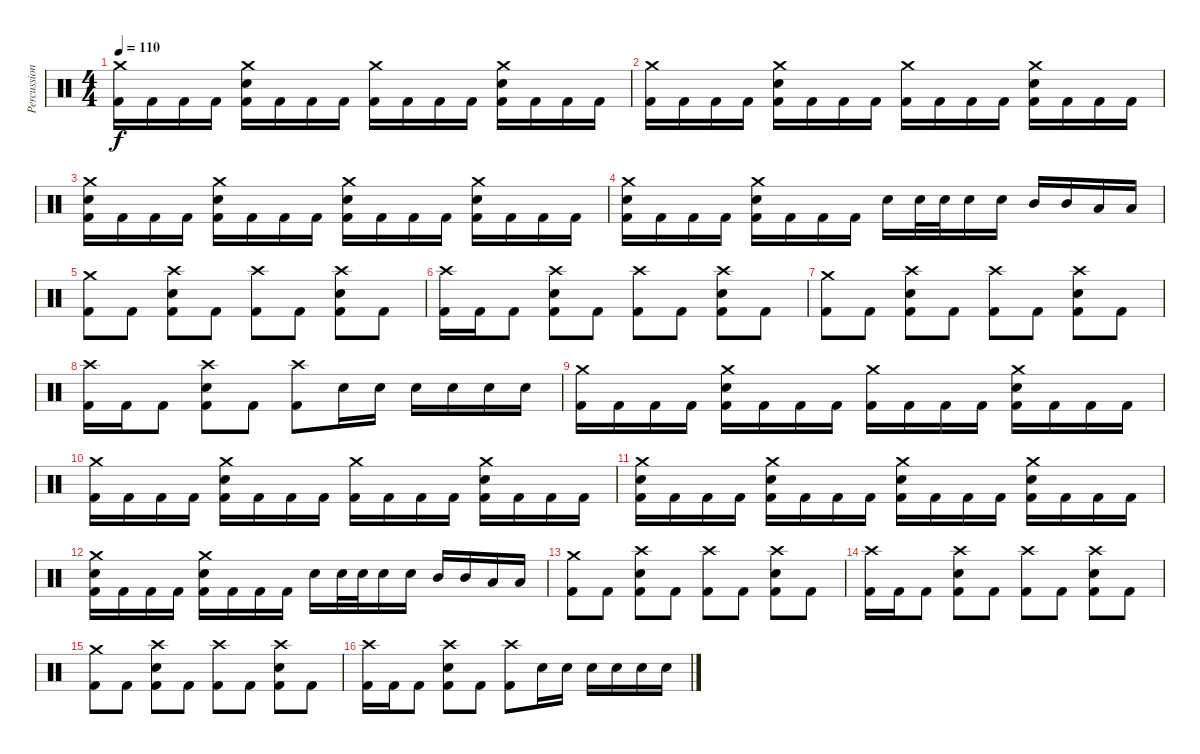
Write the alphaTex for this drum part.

\track ("Percussion" "Percussion") {instrument percussion}
\staff {score}
\articulation defaults
\ts (4 4)
\tempo 110
\clef neutral
\ks c
("Crash medium (hit)" "Kick (hit) 2").16{dy f} "Kick (hit) 2".16 "Kick (hit) 2".16 "Kick (hit) 2".16 ("Crash medium (hit)" "Electric Snare (hit)" "Kick (hit) 2").16 "Kick (hit) 2".16 "Kick (hit) 2".16 "Kick (hit) 2".16 ("Crash medium (hit)" "Kick (hit) 2").16 "Kick (hit) 2".16 "Kick (hit) 2".16 "Kick (hit) 2".16 ("Crash medium (hit)" "Electric Snare (hit)" "Kick (hit) 2").16 "Kick (hit) 2".16 "Kick (hit) 2".16 "Kick (hit) 2".16 |
("Crash medium (hit)" "Kick (hit) 2").16 "Kick (hit) 2".16 "Kick (hit) 2".16 "Kick (hit) 2".16 ("Crash medium (hit)" "Electric Snare (hit)" "Kick (hit) 2").16 "Kick (hit) 2".16 "Kick (hit) 2".16 "Kick (hit) 2".16 ("Crash medium (hit)" "Kick (hit) 2").16 "Kick (hit) 2".16 "Kick (hit) 2".16 "Kick (hit) 2".16 ("Crash medium (hit)" "Electric Snare (hit)" "Kick (hit) 2").16 "Kick (hit) 2".16 "Kick (hit) 2".16 "Kick (hit) 2".16 |
("Crash medium (hit)" "Electric Snare (hit)" "Kick (hit) 2").16 "Kick (hit) 2".16 "Kick (hit) 2".16 "Kick (hit) 2".16 ("Crash medium (hit)" "Electric Snare (hit)" "Kick (hit) 2").16 "Kick (hit) 2".16 "Kick (hit) 2".16 "Kick (hit) 2".16 ("Crash medium (hit)" "Electric Snare (hit)" "Kick (hit) 2").16 "Kick (hit) 2".16 "Kick (hit) 2".16 "Kick (hit) 2".16 ("Crash medium (hit)" "Electric Snare (hit)" "Kick (hit) 2").16 "Kick (hit) 2".16 "Kick (hit) 2".16 "Kick (hit) 2".16 |
("Crash medium (hit)" "Electric Snare (hit)" "Kick (hit) 2").16 "Kick (hit) 2".16 "Kick (hit) 2".16 "Kick (hit) 2".16 ("Crash medium (hit)" "Electric Snare (hit)" "Kick (hit) 2").16 "Kick (hit) 2".16 "Kick (hit) 2".16 "Kick (hit) 2".16 "Electric Snare (hit)".16 "Electric Snare (hit)".32 "Electric Snare (hit)".32 "Electric Snare (hit)".16 "Electric Snare (hit)".16 "Mid Tom (hit)".16 "Mid Tom (hit)".16 "Low Tom (hit)".16 "Low Tom (hit)".16 |
("Crash medium (hit)" "Kick (hit) 2").8 "Kick (hit) 2".8 ("Crash high (hit)" "Electric Snare (hit)" "Kick (hit) 2").8 "Kick (hit) 2".8 ("Crash high (hit)" "Kick (hit) 2").8 "Kick (hit) 2".8 ("Crash high (hit)" "Electric Snare (hit)" "Kick (hit) 2").8 "Kick (hit) 2".8 |
("Crash high (hit)" "Kick (hit) 2").16 "Kick (hit) 2".16 "Kick (hit) 2".8 ("Crash high (hit)" "Electric Snare (hit)" "Kick (hit) 2").8 "Kick (hit) 2".8 ("Crash high (hit)" "Kick (hit) 2").8 "Kick (hit) 2".8 ("Crash high (hit)" "Electric Snare (hit)" "Kick (hit) 2").8 "Kick (hit) 2".8 |
("Crash medium (hit)" "Kick (hit) 2").8 "Kick (hit) 2".8 ("Crash high (hit)" "Electric Snare (hit)" "Kick (hit) 2").8 "Kick (hit) 2".8 ("Crash high (hit)" "Kick (hit) 2").8 "Kick (hit) 2".8 ("Crash high (hit)" "Electric Snare (hit)" "Kick (hit) 2").8 "Kick (hit) 2".8 |
("Crash high (hit)" "Kick (hit) 2").16 "Kick (hit) 2".16 "Kick (hit) 2".8 ("Crash high (hit)" "Electric Snare (hit)" "Kick (hit) 2").8 "Kick (hit) 2".8 ("Crash high (hit)" "Kick (hit) 2").8 "Electric Snare (hit)".16 "Electric Snare (hit)".16 "Electric Snare (hit)".16 "Electric Snare (hit)".16 "Electric Snare (hit)".16 "Electric Snare (hit)".16 |
("Crash medium (hit)" "Kick (hit) 2").16 "Kick (hit) 2".16 "Kick (hit) 2".16 "Kick (hit) 2".16 ("Crash medium (hit)" "Electric Snare (hit)" "Kick (hit) 2").16 "Kick (hit) 2".16 "Kick (hit) 2".16 "Kick (hit) 2".16 ("Crash medium (hit)" "Kick (hit) 2").16 "Kick (hit) 2".16 "Kick (hit) 2".16 "Kick (hit) 2".16 ("Crash medium (hit)" "Electric Snare (hit)" "Kick (hit) 2").16 "Kick (hit) 2".16 "Kick (hit) 2".16 "Kick (hit) 2".16 |
("Crash medium (hit)" "Kick (hit) 2").16 "Kick (hit) 2".16 "Kick (hit) 2".16 "Kick (hit) 2".16 ("Crash medium (hit)" "Electric Snare (hit)" "Kick (hit) 2").16 "Kick (hit) 2".16 "Kick (hit) 2".16 "Kick (hit) 2".16 ("Crash medium (hit)" "Kick (hit) 2").16 "Kick (hit) 2".16 "Kick (hit) 2".16 "Kick (hit) 2".16 ("Crash medium (hit)" "Electric Snare (hit)" "Kick (hit) 2").16 "Kick (hit) 2".16 "Kick (hit) 2".16 "Kick (hit) 2".16 |
("Crash medium (hit)" "Electric Snare (hit)" "Kick (hit) 2").16 "Kick (hit) 2".16 "Kick (hit) 2".16 "Kick (hit) 2".16 ("Crash medium (hit)" "Electric Snare (hit)" "Kick (hit) 2").16 "Kick (hit) 2".16 "Kick (hit) 2".16 "Kick (hit) 2".16 ("Crash medium (hit)" "Electric Snare (hit)" "Kick (hit) 2").16 "Kick (hit) 2".16 "Kick (hit) 2".16 "Kick (hit) 2".16 ("Crash medium (hit)" "Electric Snare (hit)" "Kick (hit) 2").16 "Kick (hit) 2".16 "Kick (hit) 2".16 "Kick (hit) 2".16 |
("Crash medium (hit)" "Electric Snare (hit)" "Kick (hit) 2").16 "Kick (hit) 2".16 "Kick (hit) 2".16 "Kick (hit) 2".16 ("Crash medium (hit)" "Electric Snare (hit)" "Kick (hit) 2").16 "Kick (hit) 2".16 "Kick (hit) 2".16 "Kick (hit) 2".16 "Electric Snare (hit)".16 "Electric Snare (hit)".32 "Electric Snare (hit)".32 "Electric Snare (hit)".16 "Electric Snare (hit)".16 "Mid Tom (hit)".16 "Mid Tom (hit)".16 "Low Tom (hit)".16 "Low Tom (hit)".16 |
("Crash medium (hit)" "Kick (hit) 2").8 "Kick (hit) 2".8 ("Crash high (hit)" "Electric Snare (hit)" "Kick (hit) 2").8 "Kick (hit) 2".8 ("Crash high (hit)" "Kick (hit) 2").8 "Kick (hit) 2".8 ("Crash high (hit)" "Electric Snare (hit)" "Kick (hit) 2").8 "Kick (hit) 2".8 |
("Crash high (hit)" "Kick (hit) 2").16 "Kick (hit) 2".16 "Kick (hit) 2".8 ("Crash high (hit)" "Electric Snare (hit)" "Kick (hit) 2").8 "Kick (hit) 2".8 ("Crash high (hit)" "Kick (hit) 2").8 "Kick (hit) 2".8 ("Crash high (hit)" "Electric Snare (hit)" "Kick (hit) 2").8 "Kick (hit) 2".8 |
("Crash medium (hit)" "Kick (hit) 2").8 "Kick (hit) 2".8 ("Crash high (hit)" "Electric Snare (hit)" "Kick (hit) 2").8 "Kick (hit) 2".8 ("Crash high (hit)" "Kick (hit) 2").8 "Kick (hit) 2".8 ("Crash high (hit)" "Electric Snare (hit)" "Kick (hit) 2").8 "Kick (hit) 2".8 |
("Crash high (hit)" "Kick (hit) 2").16 "Kick (hit) 2".16 "Kick (hit) 2".8 ("Crash high (hit)" "Electric Snare (hit)" "Kick (hit) 2").8 "Kick (hit) 2".8 ("Crash high (hit)" "Kick (hit) 2").8 "Electric Snare (hit)".16 "Electric Snare (hit)".16 "Electric Snare (hit)".16 "Electric Snare (hit)".16 "Electric Snare (hit)".16 "Electric Snare (hit)".16
